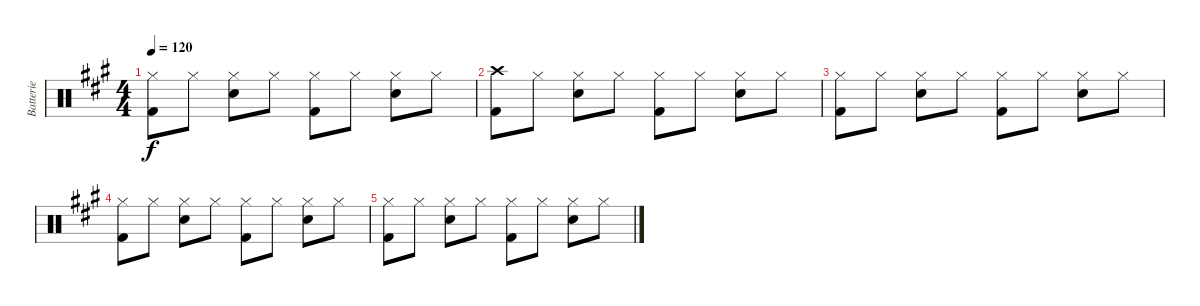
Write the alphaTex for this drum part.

\track ("Batterie" "Batterie") {instrument percussion}
\staff {score}
\articulation defaults
\ts (4 4)
\tempo 120
\clef neutral
\ks a
("Hi-Hat (closed)" "Kick (hit) 2").8{dy f} "Hi-Hat (closed)".8 ("Hi-Hat (closed)" "Snare (hit) 2").8 "Hi-Hat (closed)".8 ("Hi-Hat (closed)" "Kick (hit) 2").8 "Hi-Hat (closed)".8 ("Hi-Hat (closed)" "Snare (hit) 2").8 "Hi-Hat (closed)".8 |
("Crash high (hit)" "Kick (hit) 2").8 "Hi-Hat (closed)".8 ("Hi-Hat (closed)" "Snare (hit) 2").8 "Hi-Hat (closed)".8 ("Hi-Hat (closed)" "Kick (hit) 2").8 "Hi-Hat (closed)".8 ("Hi-Hat (closed)" "Snare (hit) 2").8 "Hi-Hat (closed)".8 |
("Hi-Hat (closed)" "Kick (hit) 2").8 "Hi-Hat (closed)".8 ("Hi-Hat (closed)" "Snare (hit) 2").8 "Hi-Hat (closed)".8 ("Hi-Hat (closed)" "Kick (hit) 2").8 "Hi-Hat (closed)".8 ("Hi-Hat (closed)" "Snare (hit) 2").8 "Hi-Hat (closed)".8 |
("Hi-Hat (closed)" "Kick (hit) 2").8 "Hi-Hat (closed)".8 ("Hi-Hat (closed)" "Snare (hit) 2").8 "Hi-Hat (closed)".8 ("Hi-Hat (closed)" "Kick (hit) 2").8 "Hi-Hat (closed)".8 ("Hi-Hat (closed)" "Snare (hit) 2").8 "Hi-Hat (closed)".8 |
("Hi-Hat (closed)" "Kick (hit) 2").8 "Hi-Hat (closed)".8 ("Hi-Hat (closed)" "Snare (hit) 2").8 "Hi-Hat (closed)".8 ("Hi-Hat (closed)" "Kick (hit) 2").8 "Hi-Hat (closed)".8 ("Hi-Hat (closed)" "Snare (hit) 2").8 "Hi-Hat (closed)".8
